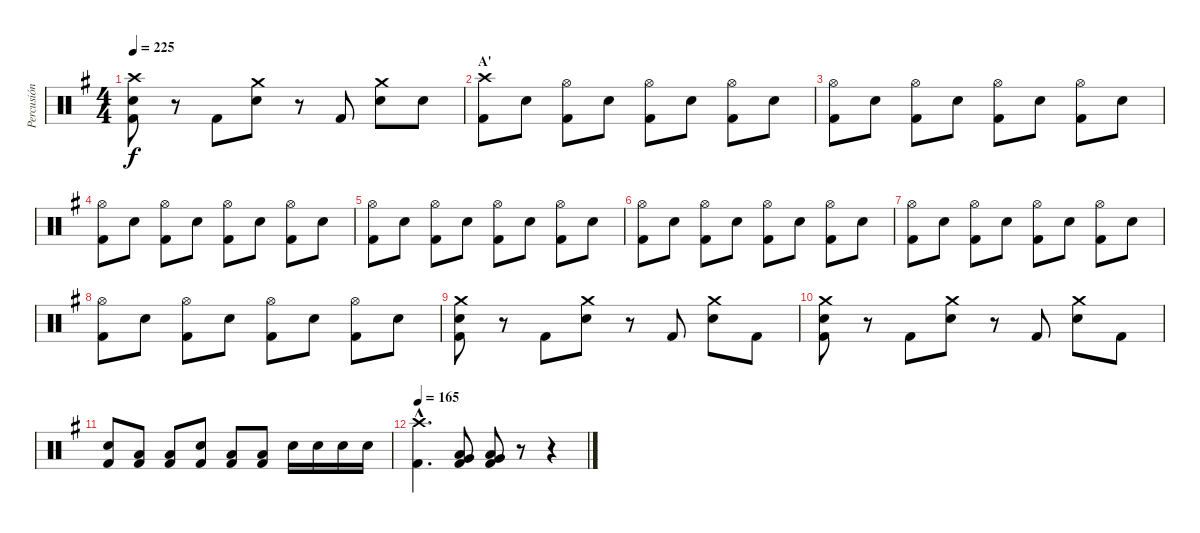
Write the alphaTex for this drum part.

\track ("Percusión" "Percusión") {instrument percussion}
\staff {score}
\articulation defaults
\ts (4 4)
\tempo 225
\clef neutral
\ks g
("Crash high (hit)" "Electric Snare (hit)" "Kick (hit) 2").8{dy f} r.8 "Kick (hit) 2".8 ("Crash medium (hit)" "Electric Snare (hit)").8 r.8 "Kick (hit) 2".8 ("Crash medium (hit)" "Electric Snare (hit)").8 "Electric Snare (hit)".8 |
\section ("" "A'")
("Crash high (hit)" "Kick (hit) 2").8 "Electric Snare (hit)".8 ("Hi-Hat (open)" "Kick (hit) 2").8 "Electric Snare (hit)".8 ("Hi-Hat (open)" "Kick (hit) 2").8 "Electric Snare (hit)".8 ("Hi-Hat (open)" "Kick (hit) 2").8 "Electric Snare (hit)".8 |
("Hi-Hat (open)" "Kick (hit) 2").8 "Electric Snare (hit)".8 ("Hi-Hat (open)" "Kick (hit) 2").8 "Electric Snare (hit)".8 ("Hi-Hat (open)" "Kick (hit) 2").8 "Electric Snare (hit)".8 ("Hi-Hat (open)" "Kick (hit) 2").8 "Electric Snare (hit)".8 |
("Hi-Hat (open)" "Kick (hit) 2").8 "Electric Snare (hit)".8 ("Hi-Hat (open)" "Kick (hit) 2").8 "Electric Snare (hit)".8 ("Hi-Hat (open)" "Kick (hit) 2").8 "Electric Snare (hit)".8 ("Hi-Hat (open)" "Kick (hit) 2").8 "Electric Snare (hit)".8 |
("Hi-Hat (open)" "Kick (hit) 2").8 "Electric Snare (hit)".8 ("Hi-Hat (open)" "Kick (hit) 2").8 "Electric Snare (hit)".8 ("Hi-Hat (open)" "Kick (hit) 2").8 "Electric Snare (hit)".8 ("Hi-Hat (open)" "Kick (hit) 2").8 "Electric Snare (hit)".8 |
("Hi-Hat (open)" "Kick (hit) 2").8 "Electric Snare (hit)".8 ("Hi-Hat (open)" "Kick (hit) 2").8 "Electric Snare (hit)".8 ("Hi-Hat (open)" "Kick (hit) 2").8 "Electric Snare (hit)".8 ("Hi-Hat (open)" "Kick (hit) 2").8 "Electric Snare (hit)".8 |
("Hi-Hat (open)" "Kick (hit) 2").8 "Electric Snare (hit)".8 ("Hi-Hat (open)" "Kick (hit) 2").8 "Electric Snare (hit)".8 ("Hi-Hat (open)" "Kick (hit) 2").8 "Electric Snare (hit)".8 ("Hi-Hat (open)" "Kick (hit) 2").8 "Electric Snare (hit)".8 |
("Hi-Hat (open)" "Kick (hit) 2").8 "Electric Snare (hit)".8 ("Hi-Hat (open)" "Kick (hit) 2").8 "Electric Snare (hit)".8 ("Hi-Hat (open)" "Kick (hit) 2").8 "Electric Snare (hit)".8 ("Hi-Hat (open)" "Kick (hit) 2").8 "Electric Snare (hit)".8 |
("Crash medium (hit)" "Electric Snare (hit)" "Kick (hit) 2").8 r.8 "Kick (hit) 2".8 ("Crash medium (hit)" "Electric Snare (hit)").8 r.8 "Kick (hit) 2".8 ("Crash medium (hit)" "Electric Snare (hit)").8 "Kick (hit) 2".8 |
("Crash medium (hit)" "Electric Snare (hit)" "Kick (hit) 2").8 r.8 "Kick (hit) 2".8 ("Crash medium (hit)" "Electric Snare (hit)").8 r.8 "Kick (hit) 2".8 ("Crash medium (hit)" "Electric Snare (hit)").8 "Kick (hit) 2".8 |
("Electric Snare (hit)" "Kick (hit) 2").8 ("Low Tom (hit)" "Kick (hit) 2").8 ("Low Tom (hit)" "Kick (hit) 2").8 ("Electric Snare (hit)" "Kick (hit) 2").8 ("Low Tom (hit)" "Kick (hit) 2").8 ("Low Tom (hit)" "Kick (hit) 2").8 "Electric Snare (hit)".16 "Electric Snare (hit)".16 "Electric Snare (hit)".16 "Electric Snare (hit)".16 |
\tempo 165
("Crash high (hit)"{hac} "Kick (hit) 2"{hac}).4{d} ("Low Tom (hit)" "Very Low Tom (hit)" "Kick (hit) 2").8 ("Low Tom (hit)" "Very Low Tom (hit)" "Kick (hit) 2").8 r.8 r.4
